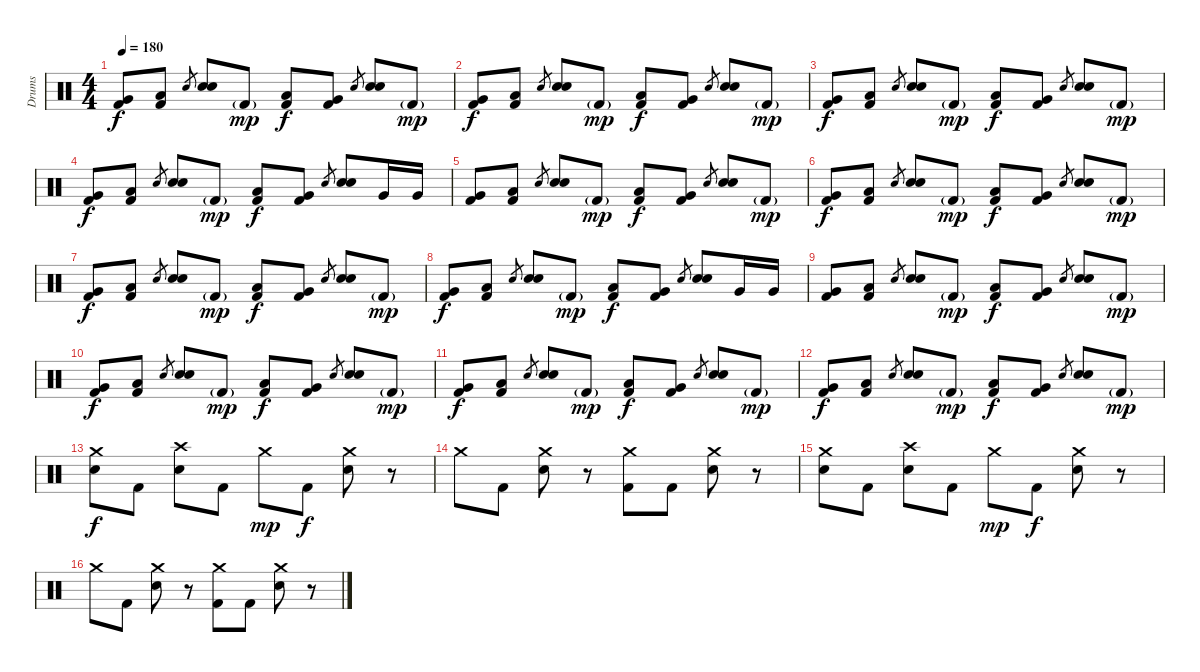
\track ("Drums" "Drums") {instrument percussion}
\staff {score}
\articulation defaults
\ts (4 4)
\tempo 180
\clef neutral
\ks c
("Kick (hit) 2" "Very Low Tom (hit)").8{dy f} ("Kick (hit) 2" "Low Floor Tom (hit)").8 "Electric Snare (hit)".8{gr} ("Electric Snare (hit)" "Electric Snare (hit)").8 "Kick (hit) 2"{g}.8{dy mp} ("Kick (hit) 2" "Low Floor Tom (hit)").8{dy f} ("Kick (hit) 2" "Very Low Tom (hit)").8 "Electric Snare (hit)".8{gr} ("Electric Snare (hit)" "Electric Snare (hit)").8 "Kick (hit) 2"{g}.8{dy mp} |
("Kick (hit) 2" "Very Low Tom (hit)").8{dy f} ("Kick (hit) 2" "Low Floor Tom (hit)").8 "Electric Snare (hit)".8{gr} ("Electric Snare (hit)" "Electric Snare (hit)").8 "Kick (hit) 2"{g}.8{dy mp} ("Kick (hit) 2" "Low Floor Tom (hit)").8{dy f} ("Kick (hit) 2" "Very Low Tom (hit)").8 "Electric Snare (hit)".8{gr} ("Electric Snare (hit)" "Electric Snare (hit)").8 "Kick (hit) 2"{g}.8{dy mp} |
("Kick (hit) 2" "Very Low Tom (hit)").8{dy f} ("Kick (hit) 2" "Low Floor Tom (hit)").8 "Electric Snare (hit)".8{gr} ("Electric Snare (hit)" "Electric Snare (hit)").8 "Kick (hit) 2"{g}.8{dy mp} ("Kick (hit) 2" "Low Floor Tom (hit)").8{dy f} ("Kick (hit) 2" "Very Low Tom (hit)").8 "Electric Snare (hit)".8{gr} ("Electric Snare (hit)" "Electric Snare (hit)").8 "Kick (hit) 2"{g}.8{dy mp} |
("Kick (hit) 2" "Very Low Tom (hit)").8{dy f} ("Kick (hit) 2" "Low Floor Tom (hit)").8 "Electric Snare (hit)".8{gr} ("Electric Snare (hit)" "Electric Snare (hit)").8 "Kick (hit) 2"{g}.8{dy mp} ("Kick (hit) 2" "Low Floor Tom (hit)").8{dy f} ("Kick (hit) 2" "Very Low Tom (hit)").8 "Electric Snare (hit)".8{gr} ("Electric Snare (hit)" "Electric Snare (hit)").8 "Very Low Tom (hit)".16 "Very Low Tom (hit)".16 |
("Kick (hit) 2" "Very Low Tom (hit)").8 ("Kick (hit) 2" "Low Floor Tom (hit)").8 "Electric Snare (hit)".8{gr} ("Electric Snare (hit)" "Electric Snare (hit)").8 "Kick (hit) 2"{g}.8{dy mp} ("Kick (hit) 2" "Low Floor Tom (hit)").8{dy f} ("Kick (hit) 2" "Very Low Tom (hit)").8 "Electric Snare (hit)".8{gr} ("Electric Snare (hit)" "Electric Snare (hit)").8 "Kick (hit) 2"{g}.8{dy mp} |
("Kick (hit) 2" "Very Low Tom (hit)").8{dy f} ("Kick (hit) 2" "Low Floor Tom (hit)").8 "Electric Snare (hit)".8{gr} ("Electric Snare (hit)" "Electric Snare (hit)").8 "Kick (hit) 2"{g}.8{dy mp} ("Kick (hit) 2" "Low Floor Tom (hit)").8{dy f} ("Kick (hit) 2" "Very Low Tom (hit)").8 "Electric Snare (hit)".8{gr} ("Electric Snare (hit)" "Electric Snare (hit)").8 "Kick (hit) 2"{g}.8{dy mp} |
("Kick (hit) 2" "Very Low Tom (hit)").8{dy f} ("Kick (hit) 2" "Low Floor Tom (hit)").8 "Electric Snare (hit)".8{gr} ("Electric Snare (hit)" "Electric Snare (hit)").8 "Kick (hit) 2"{g}.8{dy mp} ("Kick (hit) 2" "Low Floor Tom (hit)").8{dy f} ("Kick (hit) 2" "Very Low Tom (hit)").8 "Electric Snare (hit)".8{gr} ("Electric Snare (hit)" "Electric Snare (hit)").8 "Kick (hit) 2"{g}.8{dy mp} |
("Kick (hit) 2" "Very Low Tom (hit)").8{dy f} ("Kick (hit) 2" "Low Floor Tom (hit)").8 "Electric Snare (hit)".8{gr} ("Electric Snare (hit)" "Electric Snare (hit)").8 "Kick (hit) 2"{g}.8{dy mp} ("Kick (hit) 2" "Low Floor Tom (hit)").8{dy f} ("Kick (hit) 2" "Very Low Tom (hit)").8 "Electric Snare (hit)".8{gr} ("Electric Snare (hit)" "Electric Snare (hit)").8 "Very Low Tom (hit)".16 "Very Low Tom (hit)".16 |
("Kick (hit) 2" "Very Low Tom (hit)").8 ("Kick (hit) 2" "Low Floor Tom (hit)").8 "Electric Snare (hit)".8{gr} ("Electric Snare (hit)" "Electric Snare (hit)").8 "Kick (hit) 2"{g}.8{dy mp} ("Kick (hit) 2" "Low Floor Tom (hit)").8{dy f} ("Kick (hit) 2" "Very Low Tom (hit)").8 "Electric Snare (hit)".8{gr} ("Electric Snare (hit)" "Electric Snare (hit)").8 "Kick (hit) 2"{g}.8{dy mp} |
("Kick (hit) 2" "Very Low Tom (hit)").8{dy f} ("Kick (hit) 2" "Low Floor Tom (hit)").8 "Electric Snare (hit)".8{gr} ("Electric Snare (hit)" "Electric Snare (hit)").8 "Kick (hit) 2"{g}.8{dy mp} ("Kick (hit) 2" "Low Floor Tom (hit)").8{dy f} ("Kick (hit) 2" "Very Low Tom (hit)").8 "Electric Snare (hit)".8{gr} ("Electric Snare (hit)" "Electric Snare (hit)").8 "Kick (hit) 2"{g}.8{dy mp} |
("Kick (hit) 2" "Very Low Tom (hit)").8{dy f} ("Kick (hit) 2" "Low Floor Tom (hit)").8 "Electric Snare (hit)".8{gr} ("Electric Snare (hit)" "Electric Snare (hit)").8 "Kick (hit) 2"{g}.8{dy mp} ("Kick (hit) 2" "Low Floor Tom (hit)").8{dy f} ("Kick (hit) 2" "Very Low Tom (hit)").8 "Electric Snare (hit)".8{gr} ("Electric Snare (hit)" "Electric Snare (hit)").8 "Kick (hit) 2"{g}.8{dy mp} |
("Kick (hit) 2" "Very Low Tom (hit)").8{dy f} ("Kick (hit) 2" "Low Floor Tom (hit)").8 "Electric Snare (hit)".8{gr} ("Electric Snare (hit)" "Electric Snare (hit)").8 "Kick (hit) 2"{g}.8{dy mp} ("Kick (hit) 2" "Low Floor Tom (hit)").8{dy f} ("Kick (hit) 2" "Very Low Tom (hit)").8 "Electric Snare (hit)".8{gr} ("Electric Snare (hit)" "Electric Snare (hit)").8 "Kick (hit) 2"{g}.8{dy mp} |
("Electric Snare (hit)" "Crash medium (hit)").8{dy f} "Kick (hit) 2".8 ("Electric Snare (hit)" "Crash high (hit)").8 "Kick (hit) 2".8 "Crash medium (hit)".8{dy mp} "Kick (hit) 2".8{dy f} ("Electric Snare (hit)" "Crash medium (hit)").8 r.8 |
"Crash medium (hit)".8 "Kick (hit) 2".8 ("Electric Snare (hit)" "Crash medium (hit)").8 r.8 ("Kick (hit) 2" "Crash medium (hit)").8 "Kick (hit) 2".8 ("Electric Snare (hit)" "Crash medium (hit)").8 r.8 |
("Electric Snare (hit)" "Crash medium (hit)").8 "Kick (hit) 2".8 ("Electric Snare (hit)" "Crash high (hit)").8 "Kick (hit) 2".8 "Crash medium (hit)".8{dy mp} "Kick (hit) 2".8{dy f} ("Electric Snare (hit)" "Crash medium (hit)").8 r.8 |
"Crash medium (hit)".8 "Kick (hit) 2".8 ("Electric Snare (hit)" "Crash medium (hit)").8 r.8 ("Kick (hit) 2" "Crash medium (hit)").8 "Kick (hit) 2".8 ("Electric Snare (hit)" "Crash medium (hit)").8 r.8
